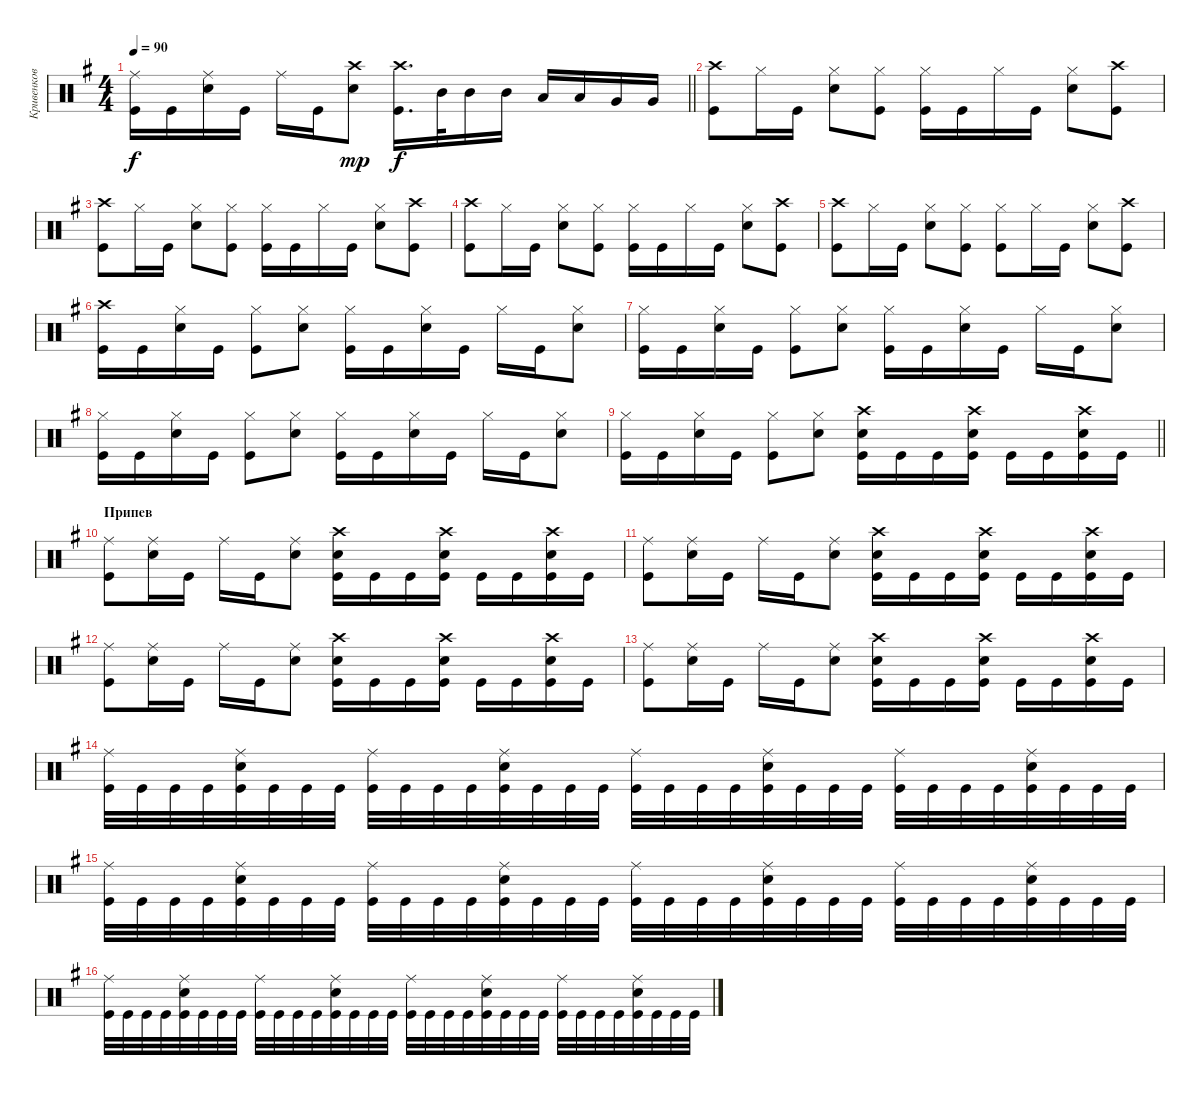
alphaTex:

\track ("Кривенков" "Кривенков") {instrument percussion}
\staff {score}
\articulation defaults
\ts (4 4)
\tempo 90
\clef neutral
\barLineRight lightlight
\ks eminor
("Kick (hit)" "Ride (middle)").16{dy f} "Kick (hit)".16 ("Snare (hit) 2" "Ride (middle)").16 "Kick (hit)".16 "Ride (middle)".16 "Kick (hit)".16 ("Crash high (hit)" "Snare (hit) 2").8{dy mp} ("Crash high (hit)" "Kick (hit)").16{d dy f} "Mid Tom (hit)".32 "Mid Tom (hit)".16 "Mid Tom (hit)".16 "Low Tom (hit)".16 "Low Tom (hit)".16 "Very Low Tom (hit)".16 "Very Low Tom (hit)".16 |
("Kick (hit)" "Crash high (hit)").8 "Hi-Hat (closed)".16 "Kick (hit)".16 ("Hi-Hat (closed)" "Snare (hit) 2").8 ("Hi-Hat (closed)" "Kick (hit)").8 ("Hi-Hat (closed)" "Kick (hit)").16 "Kick (hit)".16 "Hi-Hat (closed)".16 "Kick (hit)".16 ("Hi-Hat (closed)" "Snare (hit) 2").8 ("Crash high (hit)" "Kick (hit)").8 |
("Kick (hit)" "Crash high (hit)").8 "Hi-Hat (closed)".16 "Kick (hit)".16 ("Hi-Hat (closed)" "Snare (hit) 2").8 ("Hi-Hat (closed)" "Kick (hit)").8 ("Hi-Hat (closed)" "Kick (hit)").16 "Kick (hit)".16 "Hi-Hat (closed)".16 "Kick (hit)".16 ("Hi-Hat (closed)" "Snare (hit) 2").8 ("Crash high (hit)" "Kick (hit)").8 |
("Kick (hit)" "Crash high (hit)").8 "Hi-Hat (closed)".16 "Kick (hit)".16 ("Hi-Hat (closed)" "Snare (hit) 2").8 ("Hi-Hat (closed)" "Kick (hit)").8 ("Hi-Hat (closed)" "Kick (hit)").16 "Kick (hit)".16 "Hi-Hat (closed)".16 "Kick (hit)".16 ("Hi-Hat (closed)" "Snare (hit) 2").8 ("Crash high (hit)" "Kick (hit)").8 |
("Kick (hit)" "Crash high (hit)").8 "Hi-Hat (closed)".16 "Kick (hit)".16 ("Hi-Hat (closed)" "Snare (hit) 2").8 ("Hi-Hat (closed)" "Kick (hit)").8 ("Hi-Hat (closed)" "Kick (hit)").8 "Hi-Hat (closed)".16 "Kick (hit)".16 ("Hi-Hat (closed)" "Snare (hit) 2").8 ("Crash high (hit)" "Kick (hit)").8 |
("Kick (hit)" "Crash high (hit)").16 "Kick (hit)".16 ("Snare (hit) 2" "Hi-Hat (closed)").16 "Kick (hit)".16 ("Kick (hit)" "Hi-Hat (closed)").8 ("Snare (hit) 2" "Hi-Hat (closed)").8 ("Kick (hit)" "Hi-Hat (closed)").16 "Kick (hit)".16 ("Snare (hit) 2" "Hi-Hat (closed)").16 "Kick (hit)".16 "Hi-Hat (closed)".16 "Kick (hit)".16 ("Snare (hit) 2" "Hi-Hat (closed)").8 |
("Kick (hit)" "Hi-Hat (closed)").16 "Kick (hit)".16 ("Snare (hit) 2" "Hi-Hat (closed)").16 "Kick (hit)".16 ("Kick (hit)" "Hi-Hat (closed)").8 ("Snare (hit) 2" "Hi-Hat (closed)").8 ("Kick (hit)" "Hi-Hat (closed)").16 "Kick (hit)".16 ("Snare (hit) 2" "Hi-Hat (closed)").16 "Kick (hit)".16 "Hi-Hat (closed)".16 "Kick (hit)".16 ("Snare (hit) 2" "Hi-Hat (closed)").8 |
("Kick (hit)" "Hi-Hat (closed)").16 "Kick (hit)".16 ("Snare (hit) 2" "Hi-Hat (closed)").16 "Kick (hit)".16 ("Kick (hit)" "Hi-Hat (closed)").8 ("Snare (hit) 2" "Hi-Hat (closed)").8 ("Kick (hit)" "Hi-Hat (closed)").16 "Kick (hit)".16 ("Snare (hit) 2" "Hi-Hat (closed)").16 "Kick (hit)".16 "Hi-Hat (closed)".16 "Kick (hit)".16 ("Snare (hit) 2" "Hi-Hat (closed)").8 |
\barLineRight lightlight
("Kick (hit)" "Hi-Hat (closed)").16 "Kick (hit)".16 ("Snare (hit) 2" "Hi-Hat (closed)").16 "Kick (hit)".16 ("Kick (hit)" "Hi-Hat (closed)").8 ("Snare (hit) 2" "Hi-Hat (closed)").8 ("Snare (hit) 2" "Crash high (hit)" "Kick (hit)").16 "Kick (hit)".16 "Kick (hit)".16 ("Snare (hit) 2" "Crash high (hit)" "Kick (hit)").16 "Kick (hit)".16 "Kick (hit)".16 ("Snare (hit) 2" "Crash high (hit)" "Kick (hit)").16 "Kick (hit)".16 |
\section ("" "Припев")
("Kick (hit)" "Ride (middle)").8 ("Snare (hit) 2" "Ride (middle)").16 "Kick (hit)".16 "Ride (middle)".16 "Kick (hit)".16 ("Snare (hit) 2" "Ride (middle)").8 ("Snare (hit) 2" "Crash high (hit)" "Kick (hit)").16 "Kick (hit)".16 "Kick (hit)".16 ("Snare (hit) 2" "Crash high (hit)" "Kick (hit)").16 "Kick (hit)".16 "Kick (hit)".16 ("Snare (hit) 2" "Crash high (hit)" "Kick (hit)").16 "Kick (hit)".16 |
("Kick (hit)" "Ride (middle)").8 ("Snare (hit) 2" "Ride (middle)").16 "Kick (hit)".16 "Ride (middle)".16 "Kick (hit)".16 ("Snare (hit) 2" "Ride (middle)").8 ("Snare (hit) 2" "Crash high (hit)" "Kick (hit)").16 "Kick (hit)".16 "Kick (hit)".16 ("Snare (hit) 2" "Crash high (hit)" "Kick (hit)").16 "Kick (hit)".16 "Kick (hit)".16 ("Snare (hit) 2" "Crash high (hit)" "Kick (hit)").16 "Kick (hit)".16 |
("Kick (hit)" "Ride (middle)").8 ("Snare (hit) 2" "Ride (middle)").16 "Kick (hit)".16 "Ride (middle)".16 "Kick (hit)".16 ("Snare (hit) 2" "Ride (middle)").8 ("Snare (hit) 2" "Crash high (hit)" "Kick (hit)").16 "Kick (hit)".16 "Kick (hit)".16 ("Snare (hit) 2" "Crash high (hit)" "Kick (hit)").16 "Kick (hit)".16 "Kick (hit)".16 ("Snare (hit) 2" "Crash high (hit)" "Kick (hit)").16 "Kick (hit)".16 |
("Kick (hit)" "Ride (middle)").8 ("Snare (hit) 2" "Ride (middle)").16 "Kick (hit)".16 "Ride (middle)".16 "Kick (hit)".16 ("Snare (hit) 2" "Ride (middle)").8 ("Snare (hit) 2" "Crash high (hit)" "Kick (hit)").16 "Kick (hit)".16 "Kick (hit)".16 ("Snare (hit) 2" "Crash high (hit)" "Kick (hit)").16 "Kick (hit)".16 "Kick (hit)".16 ("Snare (hit) 2" "Crash high (hit)" "Kick (hit)").16 "Kick (hit)".16 |
("Kick (hit)" "Ride (middle)").32 "Kick (hit)".32 "Kick (hit)".32 "Kick (hit)".32 ("Kick (hit)" "Snare (hit) 2" "Ride (middle)").32 "Kick (hit)".32 "Kick (hit)".32 "Kick (hit)".32 ("Kick (hit)" "Ride (middle)").32 "Kick (hit)".32 "Kick (hit)".32 "Kick (hit)".32 ("Kick (hit)" "Snare (hit) 2" "Ride (middle)").32 "Kick (hit)".32 "Kick (hit)".32 "Kick (hit)".32 ("Kick (hit)" "Ride (middle)").32 "Kick (hit)".32 "Kick (hit)".32 "Kick (hit)".32 ("Kick (hit)" "Snare (hit) 2" "Ride (middle)").32 "Kick (hit)".32 "Kick (hit)".32 "Kick (hit)".32 ("Kick (hit)" "Ride (middle)").32 "Kick (hit)".32 "Kick (hit)".32 "Kick (hit)".32 ("Kick (hit)" "Snare (hit) 2" "Ride (middle)").32 "Kick (hit)".32 "Kick (hit)".32 "Kick (hit)".32 |
("Kick (hit)" "Ride (middle)").32 "Kick (hit)".32 "Kick (hit)".32 "Kick (hit)".32 ("Kick (hit)" "Snare (hit) 2" "Ride (middle)").32 "Kick (hit)".32 "Kick (hit)".32 "Kick (hit)".32 ("Kick (hit)" "Ride (middle)").32 "Kick (hit)".32 "Kick (hit)".32 "Kick (hit)".32 ("Kick (hit)" "Snare (hit) 2" "Ride (middle)").32 "Kick (hit)".32 "Kick (hit)".32 "Kick (hit)".32 ("Kick (hit)" "Ride (middle)").32 "Kick (hit)".32 "Kick (hit)".32 "Kick (hit)".32 ("Kick (hit)" "Snare (hit) 2" "Ride (middle)").32 "Kick (hit)".32 "Kick (hit)".32 "Kick (hit)".32 ("Kick (hit)" "Ride (middle)").32 "Kick (hit)".32 "Kick (hit)".32 "Kick (hit)".32 ("Kick (hit)" "Snare (hit) 2" "Ride (middle)").32 "Kick (hit)".32 "Kick (hit)".32 "Kick (hit)".32 |
("Kick (hit)" "Ride (middle)").32 "Kick (hit)".32 "Kick (hit)".32 "Kick (hit)".32 ("Kick (hit)" "Snare (hit) 2" "Ride (middle)").32 "Kick (hit)".32 "Kick (hit)".32 "Kick (hit)".32 ("Kick (hit)" "Ride (middle)").32 "Kick (hit)".32 "Kick (hit)".32 "Kick (hit)".32 ("Kick (hit)" "Snare (hit) 2" "Ride (middle)").32 "Kick (hit)".32 "Kick (hit)".32 "Kick (hit)".32 ("Kick (hit)" "Ride (middle)").32 "Kick (hit)".32 "Kick (hit)".32 "Kick (hit)".32 ("Kick (hit)" "Snare (hit) 2" "Ride (middle)").32 "Kick (hit)".32 "Kick (hit)".32 "Kick (hit)".32 ("Kick (hit)" "Ride (middle)").32 "Kick (hit)".32 "Kick (hit)".32 "Kick (hit)".32 ("Kick (hit)" "Snare (hit) 2" "Ride (middle)").32 "Kick (hit)".32 "Kick (hit)".32 "Kick (hit)".32
